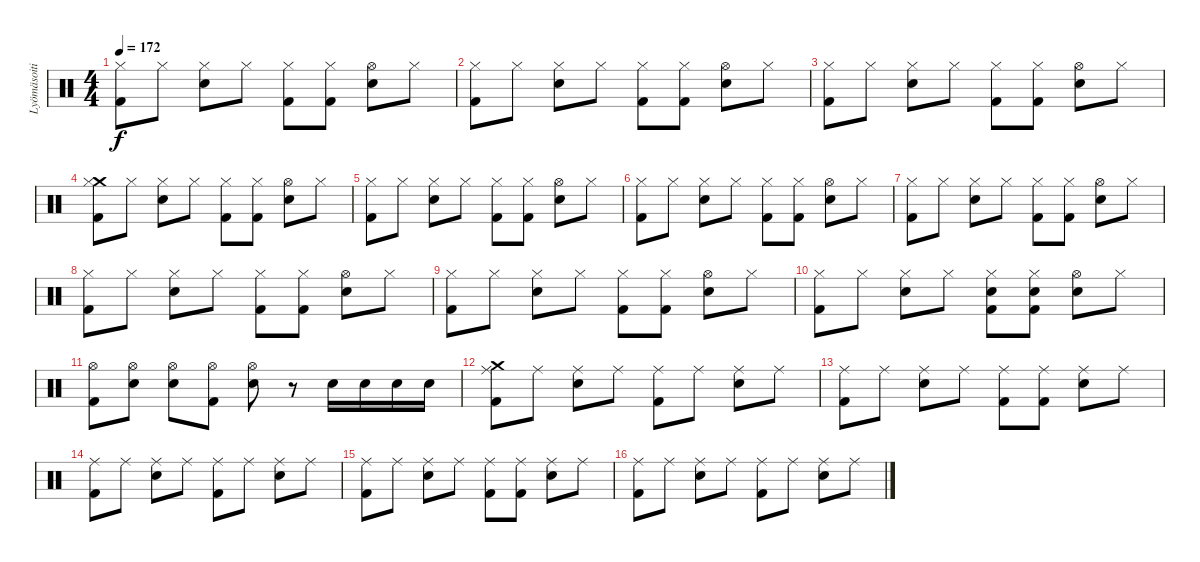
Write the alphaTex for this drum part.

\track ("Lyömäsoitin" "Lyömäsoiti") {instrument percussion}
\staff {score}
\articulation defaults
\ts (4 4)
\tempo 172
\clef neutral
\ks c
("Hi-Hat (closed)" "Kick (hit) 2").8{dy f} "Hi-Hat (closed)".8 ("Hi-Hat (closed)" "Electric Snare (hit)").8 "Hi-Hat (closed)".8 ("Hi-Hat (closed)" "Kick (hit) 2").8 ("Hi-Hat (closed)" "Kick (hit) 2").8 ("Hi-Hat (open)" "Electric Snare (hit)").8 "Hi-Hat (closed)".8 |
("Hi-Hat (closed)" "Kick (hit) 2").8 "Hi-Hat (closed)".8 ("Hi-Hat (closed)" "Electric Snare (hit)").8 "Hi-Hat (closed)".8 ("Hi-Hat (closed)" "Kick (hit) 2").8 ("Hi-Hat (closed)" "Kick (hit) 2").8 ("Hi-Hat (open)" "Electric Snare (hit)").8 "Hi-Hat (closed)".8 |
("Hi-Hat (closed)" "Kick (hit) 2").8 "Hi-Hat (closed)".8 ("Hi-Hat (closed)" "Electric Snare (hit)").8 "Hi-Hat (closed)".8 ("Hi-Hat (closed)" "Kick (hit) 2").8 ("Hi-Hat (closed)" "Kick (hit) 2").8 ("Hi-Hat (open)" "Electric Snare (hit)").8 "Hi-Hat (closed)".8 |
("Crash medium (hit)" "Hi-Hat (closed)" "Kick (hit) 2").8 "Hi-Hat (closed)".8 ("Hi-Hat (closed)" "Electric Snare (hit)").8 "Hi-Hat (closed)".8 ("Hi-Hat (closed)" "Kick (hit) 2").8 ("Hi-Hat (closed)" "Kick (hit) 2").8 ("Hi-Hat (open)" "Electric Snare (hit)").8 "Hi-Hat (closed)".8 |
("Hi-Hat (closed)" "Kick (hit) 2").8 "Hi-Hat (closed)".8 ("Hi-Hat (closed)" "Electric Snare (hit)").8 "Hi-Hat (closed)".8 ("Hi-Hat (closed)" "Kick (hit) 2").8 ("Hi-Hat (closed)" "Kick (hit) 2").8 ("Hi-Hat (open)" "Electric Snare (hit)").8 "Hi-Hat (closed)".8 |
("Hi-Hat (closed)" "Kick (hit) 2").8 "Hi-Hat (closed)".8 ("Hi-Hat (closed)" "Electric Snare (hit)").8 "Hi-Hat (closed)".8 ("Hi-Hat (closed)" "Kick (hit) 2").8 ("Hi-Hat (closed)" "Kick (hit) 2").8 ("Hi-Hat (open)" "Electric Snare (hit)").8 "Hi-Hat (closed)".8 |
("Hi-Hat (closed)" "Kick (hit) 2").8 "Hi-Hat (closed)".8 ("Hi-Hat (closed)" "Electric Snare (hit)").8 "Hi-Hat (closed)".8 ("Hi-Hat (closed)" "Kick (hit) 2").8 ("Hi-Hat (closed)" "Kick (hit) 2").8 ("Hi-Hat (open)" "Electric Snare (hit)").8 "Hi-Hat (closed)".8 |
("Hi-Hat (closed)" "Kick (hit) 2").8 "Hi-Hat (closed)".8 ("Hi-Hat (closed)" "Electric Snare (hit)").8 "Hi-Hat (closed)".8 ("Hi-Hat (closed)" "Kick (hit) 2").8 ("Hi-Hat (closed)" "Kick (hit) 2").8 ("Hi-Hat (open)" "Electric Snare (hit)").8 "Hi-Hat (closed)".8 |
("Hi-Hat (closed)" "Kick (hit) 2").8 "Hi-Hat (closed)".8 ("Hi-Hat (closed)" "Electric Snare (hit)").8 "Hi-Hat (closed)".8 ("Hi-Hat (closed)" "Kick (hit) 2").8 ("Hi-Hat (closed)" "Kick (hit) 2").8 ("Hi-Hat (open)" "Electric Snare (hit)").8 "Hi-Hat (closed)".8 |
("Hi-Hat (closed)" "Kick (hit) 2").8 "Hi-Hat (closed)".8 ("Hi-Hat (closed)" "Electric Snare (hit)").8 "Hi-Hat (closed)".8 ("Hi-Hat (closed)" "Electric Snare (hit)" "Kick (hit) 2").8 ("Hi-Hat (closed)" "Electric Snare (hit)" "Kick (hit) 2").8 ("Hi-Hat (open)" "Electric Snare (hit)").8 "Hi-Hat (closed)".8 |
("Hi-Hat (open)" "Kick (hit) 2").8 ("Hi-Hat (open)" "Electric Snare (hit)").8 ("Hi-Hat (open)" "Electric Snare (hit)").8 ("Hi-Hat (open)" "Kick (hit) 2").8 ("Hi-Hat (open)" "Electric Snare (hit)").8 r.8 "Electric Snare (hit)".16 "Electric Snare (hit)".16 "Electric Snare (hit)".16 "Electric Snare (hit)".16 |
("Crash medium (hit)" "Ride (middle)" "Kick (hit) 2").8 "Ride (middle)".8 ("Ride (middle)" "Electric Snare (hit)").8 "Ride (middle)".8 ("Ride (middle)" "Kick (hit) 2").8 "Ride (middle)".8 ("Ride (middle)" "Electric Snare (hit)").8 "Ride (middle)".8 |
("Ride (middle)" "Kick (hit) 2").8 "Ride (middle)".8 ("Ride (middle)" "Electric Snare (hit)").8 "Ride (middle)".8 ("Ride (middle)" "Kick (hit) 2").8 ("Ride (middle)" "Kick (hit) 2").8 ("Ride (middle)" "Electric Snare (hit)").8 "Ride (middle)".8 |
("Ride (middle)" "Kick (hit) 2").8 "Ride (middle)".8 ("Ride (middle)" "Electric Snare (hit)").8 "Ride (middle)".8 ("Ride (middle)" "Kick (hit) 2").8 "Ride (middle)".8 ("Ride (middle)" "Electric Snare (hit)").8 "Ride (middle)".8 |
("Ride (middle)" "Kick (hit) 2").8 "Ride (middle)".8 ("Ride (middle)" "Electric Snare (hit)").8 "Ride (middle)".8 ("Ride (middle)" "Kick (hit) 2").8 ("Ride (middle)" "Kick (hit) 2").8 ("Ride (middle)" "Electric Snare (hit)").8 "Ride (middle)".8 |
("Ride (middle)" "Kick (hit) 2").8 "Ride (middle)".8 ("Ride (middle)" "Electric Snare (hit)").8 "Ride (middle)".8 ("Ride (middle)" "Kick (hit) 2").8 "Ride (middle)".8 ("Ride (middle)" "Electric Snare (hit)").8 "Ride (middle)".8
